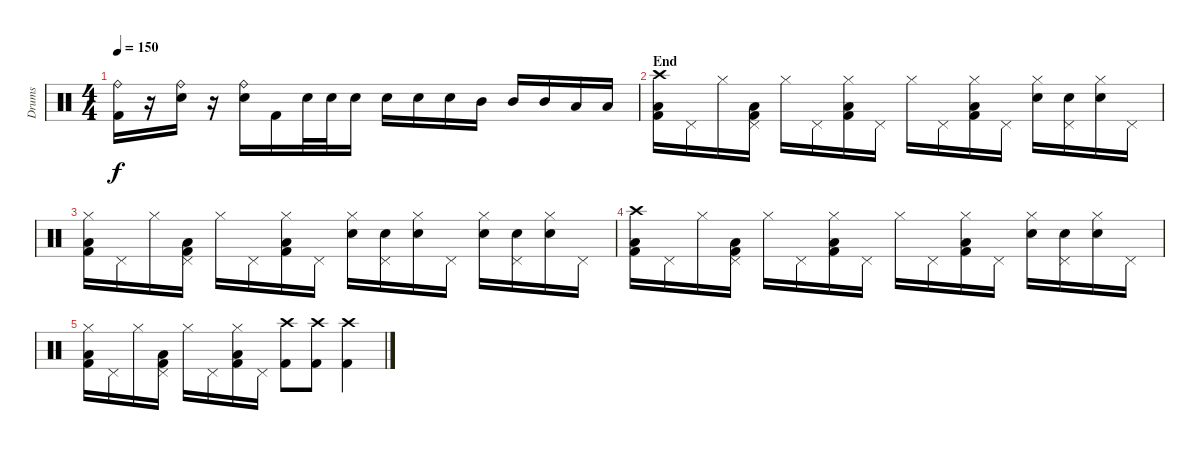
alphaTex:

\track ("Drums" "Drums") {instrument percussion}
\staff {score}
\articulation defaults
\ts (4 4)
\tempo 150
\clef neutral
\ks c
("Ride (bell)" "Kick (hit) 2").16{dy f} r.16 ("Ride (bell)" "Electric Snare (hit)").16 r.16 ("Ride (bell)" "Electric Snare (hit)").16 "Kick (hit) 2".16 "Electric Snare (hit)".32 "Electric Snare (hit)".32 "Electric Snare (hit)".16 "Electric Snare (hit)".16 "Electric Snare (hit)".16 "Electric Snare (hit)".16 "Mid Tom (hit)".16 "Mid Tom (hit)".16 "Mid Tom (hit)".16 "Low Tom (hit)".16 "Low Tom (hit)".16 |
\section ("" "End")
("Crash high (hit)" "Low Floor Tom (hit)" "Kick (hit) 2").16 "Pedal Hi-Hat (hit)".16 "Hi-Hat (closed)".16 ("Pedal Hi-Hat (hit)" "Low Floor Tom (hit)" "Kick (hit) 2").16 "Hi-Hat (closed)".16 "Pedal Hi-Hat (hit)".16 ("Hi-Hat (closed)" "Low Floor Tom (hit)" "Kick (hit) 2").16 "Pedal Hi-Hat (hit)".16 "Hi-Hat (closed)".16 "Pedal Hi-Hat (hit)".16 ("Hi-Hat (closed)" "Low Floor Tom (hit)" "Kick (hit) 2").16 "Pedal Hi-Hat (hit)".16 ("Hi-Hat (closed)" "Electric Snare (hit)").16 ("Pedal Hi-Hat (hit)" "Electric Snare (hit)").16 ("Hi-Hat (closed)" "Electric Snare (hit)").16 "Pedal Hi-Hat (hit)".16 |
("Hi-Hat (closed)" "Low Floor Tom (hit)" "Kick (hit) 2").16 "Pedal Hi-Hat (hit)".16 "Hi-Hat (closed)".16 ("Pedal Hi-Hat (hit)" "Low Floor Tom (hit)" "Kick (hit) 2").16 "Hi-Hat (closed)".16 "Pedal Hi-Hat (hit)".16 ("Hi-Hat (closed)" "Low Floor Tom (hit)" "Kick (hit) 2").16 "Pedal Hi-Hat (hit)".16 ("Hi-Hat (closed)" "Electric Snare (hit)").16 ("Pedal Hi-Hat (hit)" "Electric Snare (hit)").16 ("Hi-Hat (closed)" "Electric Snare (hit)").16 "Pedal Hi-Hat (hit)".16 ("Hi-Hat (closed)" "Electric Snare (hit)").16 ("Pedal Hi-Hat (hit)" "Electric Snare (hit)").16 ("Hi-Hat (closed)" "Electric Snare (hit)").16 "Pedal Hi-Hat (hit)".16 |
("Crash high (hit)" "Low Floor Tom (hit)" "Kick (hit) 2").16 "Pedal Hi-Hat (hit)".16 "Hi-Hat (closed)".16 ("Pedal Hi-Hat (hit)" "Low Floor Tom (hit)" "Kick (hit) 2").16 "Hi-Hat (closed)".16 "Pedal Hi-Hat (hit)".16 ("Hi-Hat (closed)" "Low Floor Tom (hit)" "Kick (hit) 2").16 "Pedal Hi-Hat (hit)".16 "Hi-Hat (closed)".16 "Pedal Hi-Hat (hit)".16 ("Hi-Hat (closed)" "Low Floor Tom (hit)" "Kick (hit) 2").16 "Pedal Hi-Hat (hit)".16 ("Hi-Hat (closed)" "Electric Snare (hit)").16 ("Pedal Hi-Hat (hit)" "Electric Snare (hit)").16 ("Hi-Hat (closed)" "Electric Snare (hit)").16 "Pedal Hi-Hat (hit)".16 |
("Hi-Hat (closed)" "Low Floor Tom (hit)" "Kick (hit) 2").16 "Pedal Hi-Hat (hit)".16 "Hi-Hat (closed)".16 ("Pedal Hi-Hat (hit)" "Low Floor Tom (hit)" "Kick (hit) 2").16 "Hi-Hat (closed)".16 "Pedal Hi-Hat (hit)".16 ("Hi-Hat (closed)" "Low Floor Tom (hit)" "Kick (hit) 2").16 "Pedal Hi-Hat (hit)".16 ("Crash high (hit)" "Kick (hit) 2").8 ("Crash high (hit)" "Kick (hit) 2").8 ("Crash high (hit)" "Kick (hit) 2").4
